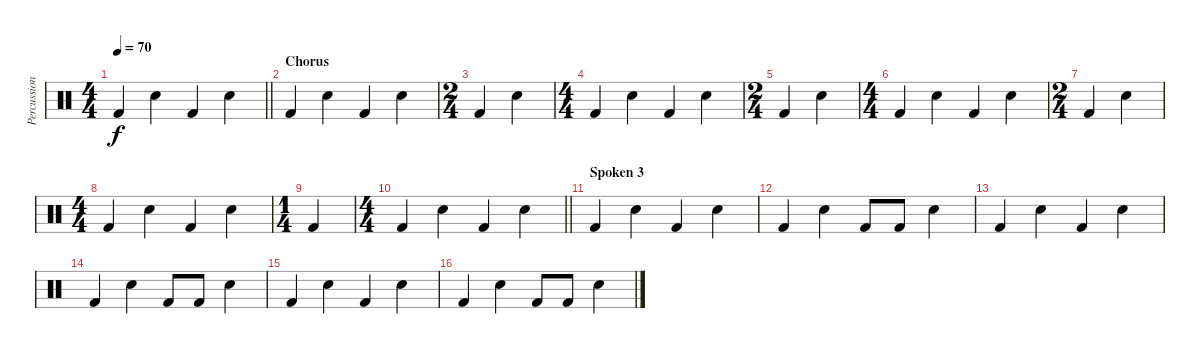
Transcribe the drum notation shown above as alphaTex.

\track ("Percussion" "Percussion") {instrument percussion}
\staff {score}
\articulation defaults
\ts (4 4)
\tempo 70
\clef neutral
\barLineRight lightlight
\ks c "Kick (hit) 2".4{dy f} "Snare (hit) 2".4 "Kick (hit) 2".4 "Snare (hit) 2".4
|
\section ("" "Chorus")
"Kick (hit) 2".4 "Snare (hit) 2".4 "Kick (hit) 2".4 "Snare (hit) 2".4 |
\ts (2 4)
"Kick (hit) 2".4 "Snare (hit) 2".4 |
\ts (4 4)
"Kick (hit) 2".4 "Snare (hit) 2".4 "Kick (hit) 2".4 "Snare (hit) 2".4 |
\ts (2 4)
"Kick (hit) 2".4 "Snare (hit) 2".4 |
\ts (4 4)
"Kick (hit) 2".4 "Snare (hit) 2".4 "Kick (hit) 2".4 "Snare (hit) 2".4 |
\ts (2 4)
"Kick (hit) 2".4 "Snare (hit) 2".4 |
\ts (4 4)
"Kick (hit) 2".4 "Snare (hit) 2".4 "Kick (hit) 2".4 "Snare (hit) 2".4 |
\ts (1 4)
"Kick (hit) 2".4 |
\ts (4 4)
\barLineRight lightlight "Kick (hit) 2".4 "Snare (hit) 2".4 "Kick (hit) 2".4 "Snare (hit) 2".4
|
\section ("" "Spoken 3")
"Kick (hit) 2".4 "Snare (hit) 2".4 "Kick (hit) 2".4 "Snare (hit) 2".4 |
"Kick (hit) 2".4 "Snare (hit) 2".4 "Kick (hit) 2".8 "Kick (hit) 2".8 "Snare (hit) 2".4 |
"Kick (hit) 2".4 "Snare (hit) 2".4 "Kick (hit) 2".4 "Snare (hit) 2".4 |
"Kick (hit) 2".4 "Snare (hit) 2".4 "Kick (hit) 2".8 "Kick (hit) 2".8 "Snare (hit) 2".4 |
"Kick (hit) 2".4 "Snare (hit) 2".4 "Kick (hit) 2".4 "Snare (hit) 2".4 |
"Kick (hit) 2".4 "Snare (hit) 2".4 "Kick (hit) 2".8 "Kick (hit) 2".8 "Snare (hit) 2".4
